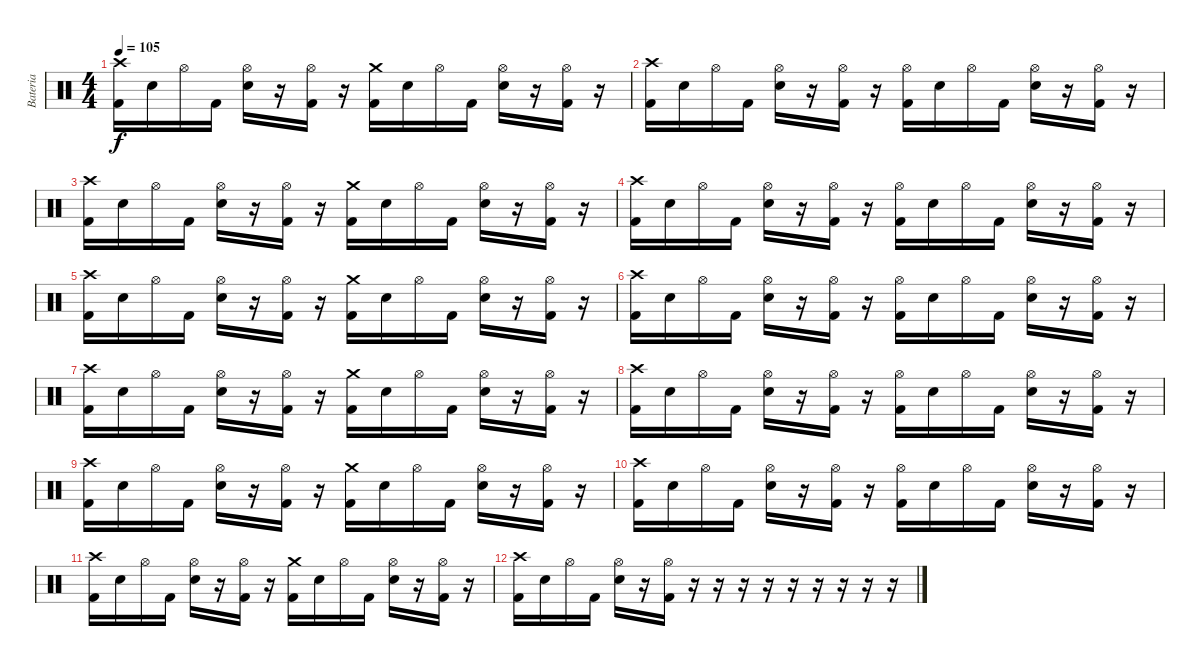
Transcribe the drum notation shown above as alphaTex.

\track ("Bateria" "Bateria") {instrument percussion}
\staff {score}
\articulation defaults
\ts (4 4)
\tempo 105
\clef neutral
\ks c
("Kick (hit) 2" "Crash high (hit)").16{dy f} "Snare (hit) 2".16 "Hi-Hat (open)".16 "Kick (hit) 2".16 ("Snare (hit) 2" "Hi-Hat (open)").16 r.16 ("Kick (hit) 2" "Hi-Hat (open)").16 r.16 ("Kick (hit) 2" "Crash medium (hit)").16 "Snare (hit) 2".16 "Hi-Hat (open)".16 "Kick (hit) 2".16 ("Snare (hit) 2" "Hi-Hat (open)").16 r.16 ("Kick (hit) 2" "Hi-Hat (open)").16 r.16 |
("Kick (hit) 2" "Crash high (hit)").16 "Snare (hit) 2".16 "Hi-Hat (open)".16 "Kick (hit) 2".16 ("Snare (hit) 2" "Hi-Hat (open)").16 r.16 ("Kick (hit) 2" "Hi-Hat (open)").16 r.16 ("Kick (hit) 2" "Hi-Hat (open)").16 "Snare (hit) 2".16 "Hi-Hat (open)".16 "Kick (hit) 2".16 ("Snare (hit) 2" "Hi-Hat (open)").16 r.16 ("Kick (hit) 2" "Hi-Hat (open)").16 r.16 |
("Kick (hit) 2" "Crash high (hit)").16 "Snare (hit) 2".16 "Hi-Hat (open)".16 "Kick (hit) 2".16 ("Snare (hit) 2" "Hi-Hat (open)").16 r.16 ("Kick (hit) 2" "Hi-Hat (open)").16 r.16 ("Kick (hit) 2" "Crash medium (hit)").16 "Snare (hit) 2".16 "Hi-Hat (open)".16 "Kick (hit) 2".16 ("Snare (hit) 2" "Hi-Hat (open)").16 r.16 ("Kick (hit) 2" "Hi-Hat (open)").16 r.16 |
("Kick (hit) 2" "Crash high (hit)").16 "Snare (hit) 2".16 "Hi-Hat (open)".16 "Kick (hit) 2".16 ("Snare (hit) 2" "Hi-Hat (open)").16 r.16 ("Kick (hit) 2" "Hi-Hat (open)").16 r.16 ("Kick (hit) 2" "Hi-Hat (open)").16 "Snare (hit) 2".16 "Hi-Hat (open)".16 "Kick (hit) 2".16 ("Snare (hit) 2" "Hi-Hat (open)").16 r.16 ("Kick (hit) 2" "Hi-Hat (open)").16 r.16 |
("Kick (hit) 2" "Crash high (hit)").16 "Snare (hit) 2".16 "Hi-Hat (open)".16 "Kick (hit) 2".16 ("Snare (hit) 2" "Hi-Hat (open)").16 r.16 ("Kick (hit) 2" "Hi-Hat (open)").16 r.16 ("Kick (hit) 2" "Crash medium (hit)").16 "Snare (hit) 2".16 "Hi-Hat (open)".16 "Kick (hit) 2".16 ("Snare (hit) 2" "Hi-Hat (open)").16 r.16 ("Kick (hit) 2" "Hi-Hat (open)").16 r.16 |
("Kick (hit) 2" "Crash high (hit)").16 "Snare (hit) 2".16 "Hi-Hat (open)".16 "Kick (hit) 2".16 ("Snare (hit) 2" "Hi-Hat (open)").16 r.16 ("Kick (hit) 2" "Hi-Hat (open)").16 r.16 ("Kick (hit) 2" "Hi-Hat (open)").16 "Snare (hit) 2".16 "Hi-Hat (open)".16 "Kick (hit) 2".16 ("Snare (hit) 2" "Hi-Hat (open)").16 r.16 ("Kick (hit) 2" "Hi-Hat (open)").16 r.16 |
("Kick (hit) 2" "Crash high (hit)").16 "Snare (hit) 2".16 "Hi-Hat (open)".16 "Kick (hit) 2".16 ("Snare (hit) 2" "Hi-Hat (open)").16 r.16 ("Kick (hit) 2" "Hi-Hat (open)").16 r.16 ("Kick (hit) 2" "Crash medium (hit)").16 "Snare (hit) 2".16 "Hi-Hat (open)".16 "Kick (hit) 2".16 ("Snare (hit) 2" "Hi-Hat (open)").16 r.16 ("Kick (hit) 2" "Hi-Hat (open)").16 r.16 |
("Kick (hit) 2" "Crash high (hit)").16 "Snare (hit) 2".16 "Hi-Hat (open)".16 "Kick (hit) 2".16 ("Snare (hit) 2" "Hi-Hat (open)").16 r.16 ("Kick (hit) 2" "Hi-Hat (open)").16 r.16 ("Kick (hit) 2" "Hi-Hat (open)").16 "Snare (hit) 2".16 "Hi-Hat (open)".16 "Kick (hit) 2".16 ("Snare (hit) 2" "Hi-Hat (open)").16 r.16 ("Kick (hit) 2" "Hi-Hat (open)").16 r.16 |
("Kick (hit) 2" "Crash high (hit)").16 "Snare (hit) 2".16 "Hi-Hat (open)".16 "Kick (hit) 2".16 ("Snare (hit) 2" "Hi-Hat (open)").16 r.16 ("Kick (hit) 2" "Hi-Hat (open)").16 r.16 ("Kick (hit) 2" "Crash medium (hit)").16 "Snare (hit) 2".16 "Hi-Hat (open)".16 "Kick (hit) 2".16 ("Snare (hit) 2" "Hi-Hat (open)").16 r.16 ("Kick (hit) 2" "Hi-Hat (open)").16 r.16 |
("Kick (hit) 2" "Crash high (hit)").16 "Snare (hit) 2".16 "Hi-Hat (open)".16 "Kick (hit) 2".16 ("Snare (hit) 2" "Hi-Hat (open)").16 r.16 ("Kick (hit) 2" "Hi-Hat (open)").16 r.16 ("Kick (hit) 2" "Hi-Hat (open)").16 "Snare (hit) 2".16 "Hi-Hat (open)".16 "Kick (hit) 2".16 ("Snare (hit) 2" "Hi-Hat (open)").16 r.16 ("Kick (hit) 2" "Hi-Hat (open)").16 r.16 |
("Kick (hit) 2" "Crash high (hit)").16 "Snare (hit) 2".16 "Hi-Hat (open)".16 "Kick (hit) 2".16 ("Snare (hit) 2" "Hi-Hat (open)").16 r.16 ("Kick (hit) 2" "Hi-Hat (open)").16 r.16 ("Kick (hit) 2" "Crash medium (hit)").16 "Snare (hit) 2".16 "Hi-Hat (open)".16 "Kick (hit) 2".16 ("Snare (hit) 2" "Hi-Hat (open)").16 r.16 ("Kick (hit) 2" "Hi-Hat (open)").16 r.16 |
("Kick (hit) 2" "Crash high (hit)").16 "Snare (hit) 2".16 "Hi-Hat (open)".16 "Kick (hit) 2".16 ("Snare (hit) 2" "Hi-Hat (open)").16 r.16 ("Kick (hit) 2" "Hi-Hat (open)").16 r.16 r.16 r.16 r.16 r.16 r.16 r.16 r.16 r.16
